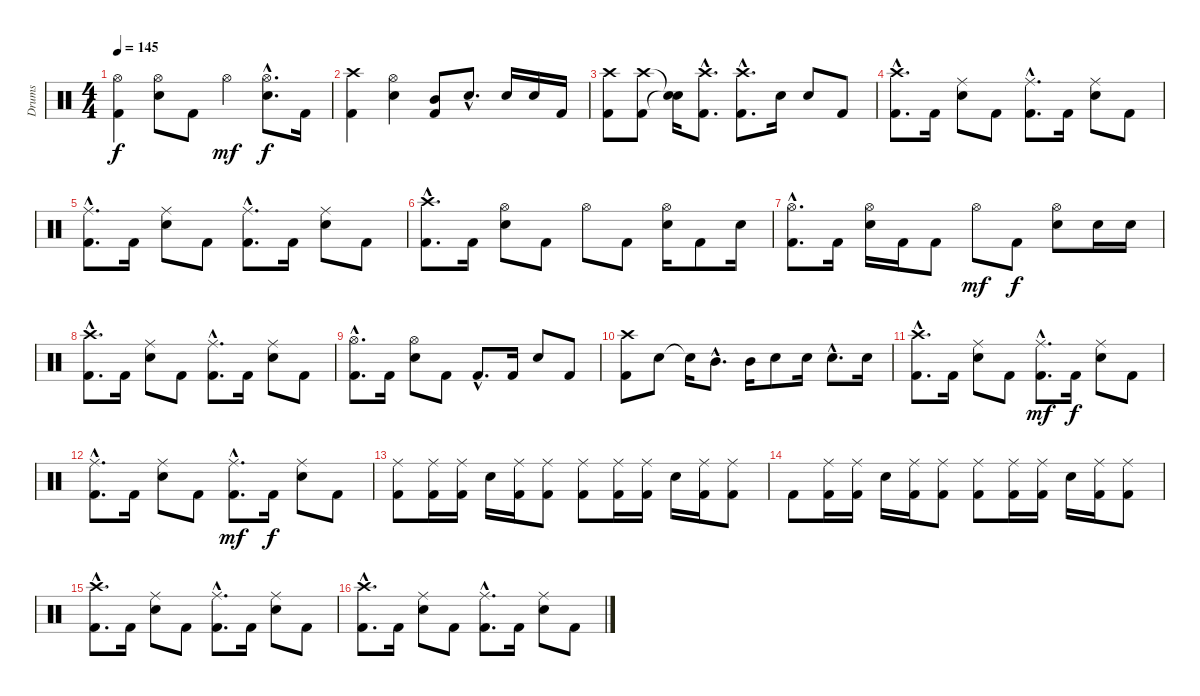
\track ("Drums" "Drums") {instrument percussion}
\staff {score}
\articulation defaults
\ts (4 4)
\tempo 145
\clef neutral
\ks c
("Hi-Hat (open)" "Kick (hit) 2").4{dy f} ("Hi-Hat (open)" "Electric Snare (hit)").8 "Kick (hit) 2".8 "Hi-Hat (open)".4{dy mf} ("Hi-Hat (open)"{hac} "Electric Snare (hit)"{hac}).8{d dy f} "Kick (hit) 2".16 |
("Crash high (hit)" "Kick (hit) 2").4 ("Hi-Hat (open)" "Electric Snare (hit)").4 ("Mid Tom (hit)" "Kick (hit) 2").8 "Electric Snare (hit)"{hac}.8{d} "Electric Snare (hit)".16 "Electric Snare (hit)".16 "Kick (hit) 2".16 |
("Crash high (hit)" "Kick (hit) 2").8 ("Crash high (hit)" "Kick (hit) 2").8 ("Snare (hit)"{t} "Snare (hit)"{t}).16 ("Crash high (hit)"{hac} "Kick (hit) 2"{hac}).8{d} ("Crash high (hit)"{hac} "Kick (hit) 2"{hac}).8{d} "Electric Snare (hit)".16 "Electric Snare (hit)".8 "Kick (hit) 2".8 |
("Crash high (hit)"{hac} "Kick (hit) 2"{hac}).8{d} "Kick (hit) 2".16 ("Ride (middle)" "Electric Snare (hit)").8 "Kick (hit) 2".8 ("Ride (middle)"{hac} "Kick (hit) 2"{hac}).8{d} "Kick (hit) 2".16 ("Ride (middle)" "Electric Snare (hit)").8 "Kick (hit) 2".8 |
("Ride (middle)"{hac} "Kick (hit) 2"{hac}).8{d} "Kick (hit) 2".16 ("Ride (middle)" "Electric Snare (hit)").8 "Kick (hit) 2".8 ("Ride (middle)"{hac} "Kick (hit) 2"{hac}).8{d} "Kick (hit) 2".16 ("Ride (middle)" "Electric Snare (hit)").8 "Kick (hit) 2".8 |
("Crash high (hit)"{hac} "Kick (hit) 2"{hac}).8{d} "Kick (hit) 2".16 ("Hi-Hat (open)" "Electric Snare (hit)").8 "Kick (hit) 2".8 "Hi-Hat (open)".8 "Kick (hit) 2".8 ("Hi-Hat (open)" "Electric Snare (hit)").16 "Kick (hit) 2".8 "Electric Snare (hit)".16 |
("Hi-Hat (open)"{hac} "Kick (hit) 2"{hac}).8{d} "Kick (hit) 2".16 ("Hi-Hat (open)" "Electric Snare (hit)").16 "Kick (hit) 2".16 "Kick (hit) 2".8 "Hi-Hat (open)".8{dy mf} "Kick (hit) 2".8{dy f} ("Hi-Hat (open)" "Electric Snare (hit)").8 "Electric Snare (hit)".16 "Electric Snare (hit)".16 |
("Crash high (hit)"{hac} "Kick (hit) 2"{hac}).8{d} "Kick (hit) 2".16 ("Ride (middle)" "Electric Snare (hit)").8 "Kick (hit) 2".8 ("Ride (middle)"{hac} "Kick (hit) 2"{hac}).8{d} "Kick (hit) 2".16 ("Ride (middle)" "Electric Snare (hit)").8 "Kick (hit) 2".8 |
("Hi-Hat (open)"{hac} "Kick (hit) 2"{hac}).8{d} "Kick (hit) 2".16 ("Hi-Hat (open)" "Electric Snare (hit)").8 "Kick (hit) 2".8 "Kick (hit) 2"{hac}.8{d} "Kick (hit) 2".16 "Electric Snare (hit)".8 "Kick (hit) 2".8 |
("Crash high (hit)" "Kick (hit) 2").8 "Electric Snare (hit)".8 "Snare (hit)"{t}.16 "Mid Tom (hit)"{hac}.8{d} "Mid Tom (hit)".16 "Electric Snare (hit)".8 "Electric Snare (hit)".16 "Electric Snare (hit)"{hac}.8{d} "Electric Snare (hit)".16 |
("Crash high (hit)"{hac} "Kick (hit) 2"{hac}).8{d} "Kick (hit) 2".16 ("Ride (middle)" "Electric Snare (hit)").8 "Kick (hit) 2".8 ("Ride (middle)"{hac} "Kick (hit) 2"{hac}).8{d dy mf} "Kick (hit) 2".16{dy f} ("Ride (middle)" "Electric Snare (hit)").8 "Kick (hit) 2".8 |
("Ride (middle)"{hac} "Kick (hit) 2"{hac}).8{d} "Kick (hit) 2".16 ("Ride (middle)" "Electric Snare (hit)").8 "Kick (hit) 2".8 ("Ride (middle)"{hac} "Kick (hit) 2"{hac}).8{d dy mf} "Kick (hit) 2".16{dy f} ("Ride (middle)" "Electric Snare (hit)").8 "Kick (hit) 2".8 |
("Ride (middle)" "Kick (hit) 2").8 ("Ride (middle)" "Kick (hit) 2").16 ("Ride (middle)" "Kick (hit) 2").16 "Electric Snare (hit)".16 ("Ride (middle)" "Kick (hit) 2").16 ("Ride (middle)" "Kick (hit) 2").8 ("Ride (middle)" "Kick (hit) 2").8 ("Ride (middle)" "Kick (hit) 2").16 ("Ride (middle)" "Kick (hit) 2").16 "Electric Snare (hit)".16 ("Ride (middle)" "Kick (hit) 2").16 ("Ride (middle)" "Kick (hit) 2").8 |
"Kick (hit) 2".8 ("Ride (middle)" "Kick (hit) 2").16 ("Ride (middle)" "Kick (hit) 2").16 "Electric Snare (hit)".16 ("Ride (middle)" "Kick (hit) 2").16 ("Ride (middle)" "Kick (hit) 2").8 ("Ride (middle)" "Kick (hit) 2").8 ("Ride (middle)" "Kick (hit) 2").16 ("Ride (middle)" "Kick (hit) 2").16 "Electric Snare (hit)".16 ("Ride (middle)" "Kick (hit) 2").16 ("Ride (middle)" "Kick (hit) 2").8 |
("Crash high (hit)"{hac} "Kick (hit) 2"{hac}).8{d} "Kick (hit) 2".16 ("Ride (middle)" "Electric Snare (hit)").8 "Kick (hit) 2".8 ("Ride (middle)"{hac} "Kick (hit) 2"{hac}).8{d} "Kick (hit) 2".16 ("Ride (middle)" "Electric Snare (hit)").8 "Kick (hit) 2".8 |
("Crash high (hit)"{hac} "Kick (hit) 2"{hac}).8{d} "Kick (hit) 2".16 ("Ride (middle)" "Electric Snare (hit)").8 "Kick (hit) 2".8 ("Ride (middle)"{hac} "Kick (hit) 2"{hac}).8{d} "Kick (hit) 2".16 ("Ride (middle)" "Electric Snare (hit)").8 "Kick (hit) 2".8
